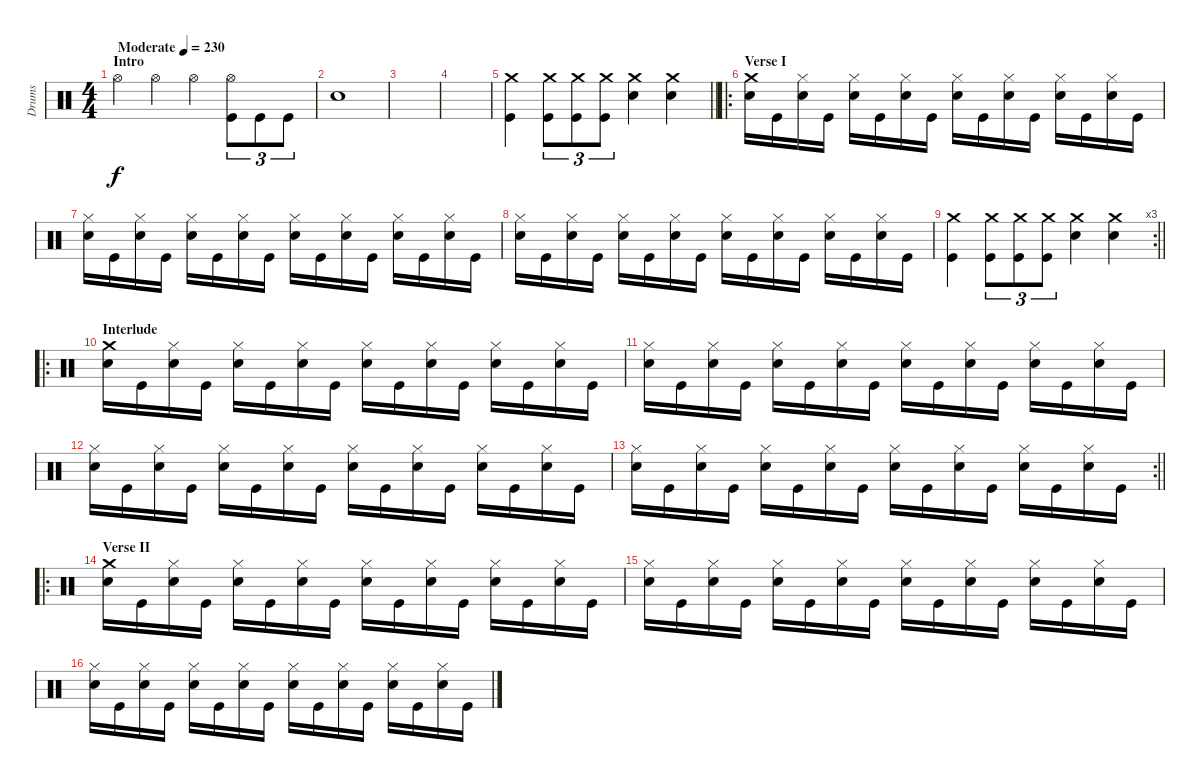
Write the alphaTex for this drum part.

\track ("Drums" "Drums") {instrument percussion}
\staff {score}
\articulation defaults
\ts (4 4)
\section ("" "Intro")
\tempo (230 "Moderate")
\clef neutral
\ks c "Hi-Hat (open)".4{dy f} "Hi-Hat (open)".4 "Hi-Hat (open)".4
("Hi-Hat (open)" "Kick (hit)").8{tu (3 2)} "Kick (hit)".8{tu (3 2)} "Kick (hit)".8{tu (3 2)} |
"Electric Snare (hit)".1 |
|
|
\barLineRight lightlight
("Crash medium (hit)" "Kick (hit)").4 ("Crash medium (hit)" "Kick (hit)").8{tu (3 2)} ("Crash medium (hit)" "Kick (hit)").8{tu (3 2)} ("Crash medium (hit)" "Kick (hit)").8{tu (3 2)} ("Crash medium (hit)" "Electric Snare (hit)").4 ("Crash medium (hit)" "Electric Snare (hit)").4 |
\ro
\section ("" "Verse I")
("Crash medium (hit)" "Electric Snare (hit)").16 "Kick (hit)".16 ("Hi-Hat (closed)" "Electric Snare (hit)").16 "Kick (hit)".16 ("Hi-Hat (closed)" "Electric Snare (hit)").16 "Kick (hit)".16 ("Hi-Hat (closed)" "Electric Snare (hit)").16 "Kick (hit)".16 ("Hi-Hat (closed)" "Electric Snare (hit)").16 "Kick (hit)".16 ("Hi-Hat (closed)" "Electric Snare (hit)").16 "Kick (hit)".16 ("Hi-Hat (closed)" "Electric Snare (hit)").16 "Kick (hit)".16 ("Hi-Hat (closed)" "Electric Snare (hit)").16 "Kick (hit)".16 |
("Hi-Hat (closed)" "Electric Snare (hit)").16 "Kick (hit)".16 ("Hi-Hat (closed)" "Electric Snare (hit)").16 "Kick (hit)".16 ("Hi-Hat (closed)" "Electric Snare (hit)").16 "Kick (hit)".16 ("Hi-Hat (closed)" "Electric Snare (hit)").16 "Kick (hit)".16 ("Hi-Hat (closed)" "Electric Snare (hit)").16 "Kick (hit)".16 ("Hi-Hat (closed)" "Electric Snare (hit)").16 "Kick (hit)".16 ("Hi-Hat (closed)" "Electric Snare (hit)").16 "Kick (hit)".16 ("Hi-Hat (closed)" "Electric Snare (hit)").16 "Kick (hit)".16 |
("Hi-Hat (closed)" "Electric Snare (hit)").16 "Kick (hit)".16 ("Hi-Hat (closed)" "Electric Snare (hit)").16 "Kick (hit)".16 ("Hi-Hat (closed)" "Electric Snare (hit)").16 "Kick (hit)".16 ("Hi-Hat (closed)" "Electric Snare (hit)").16 "Kick (hit)".16 ("Hi-Hat (closed)" "Electric Snare (hit)").16 "Kick (hit)".16 ("Hi-Hat (closed)" "Electric Snare (hit)").16 "Kick (hit)".16 ("Hi-Hat (closed)" "Electric Snare (hit)").16 "Kick (hit)".16 ("Hi-Hat (closed)" "Electric Snare (hit)").16 "Kick (hit)".16 |
\rc 3
\barLineRight lightlight
("Crash medium (hit)" "Kick (hit)").4 ("Crash medium (hit)" "Kick (hit)").8{tu (3 2)} ("Crash medium (hit)" "Kick (hit)").8{tu (3 2)} ("Crash medium (hit)" "Kick (hit)").8{tu (3 2)} ("Crash medium (hit)" "Electric Snare (hit)").4 ("Crash medium (hit)" "Electric Snare (hit)").4 |
\ro
\section ("" "Interlude")
("Crash medium (hit)" "Electric Snare (hit)").16 "Kick (hit)".16 ("Hi-Hat (closed)" "Electric Snare (hit)").16 "Kick (hit)".16 ("Hi-Hat (closed)" "Electric Snare (hit)").16 "Kick (hit)".16 ("Hi-Hat (closed)" "Electric Snare (hit)").16 "Kick (hit)".16 ("Hi-Hat (closed)" "Electric Snare (hit)").16 "Kick (hit)".16 ("Hi-Hat (closed)" "Electric Snare (hit)").16 "Kick (hit)".16 ("Hi-Hat (closed)" "Electric Snare (hit)").16 "Kick (hit)".16 ("Hi-Hat (closed)" "Electric Snare (hit)").16 "Kick (hit)".16 |
("Hi-Hat (closed)" "Electric Snare (hit)").16 "Kick (hit)".16 ("Hi-Hat (closed)" "Electric Snare (hit)").16 "Kick (hit)".16 ("Hi-Hat (closed)" "Electric Snare (hit)").16 "Kick (hit)".16 ("Hi-Hat (closed)" "Electric Snare (hit)").16 "Kick (hit)".16 ("Hi-Hat (closed)" "Electric Snare (hit)").16 "Kick (hit)".16 ("Hi-Hat (closed)" "Electric Snare (hit)").16 "Kick (hit)".16 ("Hi-Hat (closed)" "Electric Snare (hit)").16 "Kick (hit)".16 ("Hi-Hat (closed)" "Electric Snare (hit)").16 "Kick (hit)".16 |
("Hi-Hat (closed)" "Electric Snare (hit)").16 "Kick (hit)".16 ("Hi-Hat (closed)" "Electric Snare (hit)").16 "Kick (hit)".16 ("Hi-Hat (closed)" "Electric Snare (hit)").16 "Kick (hit)".16 ("Hi-Hat (closed)" "Electric Snare (hit)").16 "Kick (hit)".16 ("Hi-Hat (closed)" "Electric Snare (hit)").16 "Kick (hit)".16 ("Hi-Hat (closed)" "Electric Snare (hit)").16 "Kick (hit)".16 ("Hi-Hat (closed)" "Electric Snare (hit)").16 "Kick (hit)".16 ("Hi-Hat (closed)" "Electric Snare (hit)").16 "Kick (hit)".16 |
\rc 2
\barLineRight lightlight
("Hi-Hat (closed)" "Electric Snare (hit)").16 "Kick (hit)".16 ("Hi-Hat (closed)" "Electric Snare (hit)").16 "Kick (hit)".16 ("Hi-Hat (closed)" "Electric Snare (hit)").16 "Kick (hit)".16 ("Hi-Hat (closed)" "Electric Snare (hit)").16 "Kick (hit)".16 ("Hi-Hat (closed)" "Electric Snare (hit)").16 "Kick (hit)".16 ("Hi-Hat (closed)" "Electric Snare (hit)").16 "Kick (hit)".16 ("Hi-Hat (closed)" "Electric Snare (hit)").16 "Kick (hit)".16 ("Hi-Hat (closed)" "Electric Snare (hit)").16 "Kick (hit)".16 |
\ro
\section ("" "Verse II")
("Crash medium (hit)" "Electric Snare (hit)").16 "Kick (hit)".16 ("Hi-Hat (closed)" "Electric Snare (hit)").16 "Kick (hit)".16 ("Hi-Hat (closed)" "Electric Snare (hit)").16 "Kick (hit)".16 ("Hi-Hat (closed)" "Electric Snare (hit)").16 "Kick (hit)".16 ("Hi-Hat (closed)" "Electric Snare (hit)").16 "Kick (hit)".16 ("Hi-Hat (closed)" "Electric Snare (hit)").16 "Kick (hit)".16 ("Hi-Hat (closed)" "Electric Snare (hit)").16 "Kick (hit)".16 ("Hi-Hat (closed)" "Electric Snare (hit)").16 "Kick (hit)".16 |
("Hi-Hat (closed)" "Electric Snare (hit)").16 "Kick (hit)".16 ("Hi-Hat (closed)" "Electric Snare (hit)").16 "Kick (hit)".16 ("Hi-Hat (closed)" "Electric Snare (hit)").16 "Kick (hit)".16 ("Hi-Hat (closed)" "Electric Snare (hit)").16 "Kick (hit)".16 ("Hi-Hat (closed)" "Electric Snare (hit)").16 "Kick (hit)".16 ("Hi-Hat (closed)" "Electric Snare (hit)").16 "Kick (hit)".16 ("Hi-Hat (closed)" "Electric Snare (hit)").16 "Kick (hit)".16 ("Hi-Hat (closed)" "Electric Snare (hit)").16 "Kick (hit)".16 |
("Hi-Hat (closed)" "Electric Snare (hit)").16 "Kick (hit)".16 ("Hi-Hat (closed)" "Electric Snare (hit)").16 "Kick (hit)".16 ("Hi-Hat (closed)" "Electric Snare (hit)").16 "Kick (hit)".16 ("Hi-Hat (closed)" "Electric Snare (hit)").16 "Kick (hit)".16 ("Hi-Hat (closed)" "Electric Snare (hit)").16 "Kick (hit)".16 ("Hi-Hat (closed)" "Electric Snare (hit)").16 "Kick (hit)".16 ("Hi-Hat (closed)" "Electric Snare (hit)").16 "Kick (hit)".16 ("Hi-Hat (closed)" "Electric Snare (hit)").16 "Kick (hit)".16
